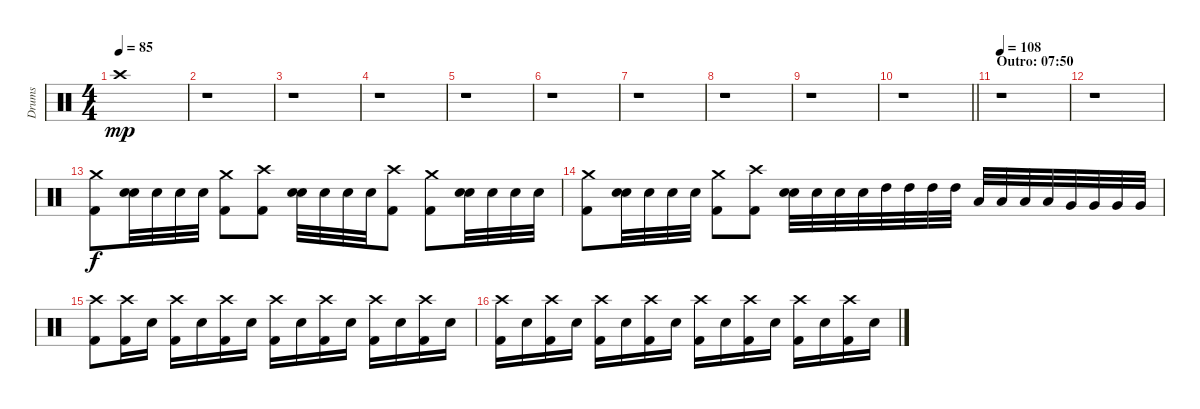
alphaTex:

\track ("Drums" "Drums") {instrument percussion}
\staff {score}
\articulation defaults
\ts (4 4)
\tempo 85
\clef neutral
\ks c "Crash high (hit)".1{dy mp volume 12}
|
r.1 |
r.1 |
r.1 |
r.1 |
r.1 |
r.1 |
r.1 |
r.1 |
\barLineRight lightlight
r.1 |
\section ("" "Outro: 07:50")
\tempo 108
r.1 |
r.1 |
("Crash medium (hit)" "Kick (hit) 2").8{dy f} ("Electric Snare (hit)" "Electric Snare (hit)").32{bu 60} "Electric Snare (hit)".32 "Electric Snare (hit)".32 "Electric Snare (hit)".32 ("Crash medium (hit)" "Kick (hit) 2").8 ("Crash high (hit)" "Kick (hit) 2").8 ("Electric Snare (hit)" "Electric Snare (hit)").32{bu 60} "Electric Snare (hit)".32 "Electric Snare (hit)".32 "Electric Snare (hit)".32 ("Crash high (hit)" "Kick (hit) 2").8 ("Crash medium (hit)" "Kick (hit) 2").8 ("Electric Snare (hit)" "Electric Snare (hit)").32{bu 60} "Electric Snare (hit)".32 "Electric Snare (hit)".32 "Electric Snare (hit)".32 |
("Crash medium (hit)" "Kick (hit) 2").8 ("Electric Snare (hit)" "Electric Snare (hit)").32{bu 60} "Electric Snare (hit)".32 "Electric Snare (hit)".32 "Electric Snare (hit)".32 ("Crash medium (hit)" "Kick (hit) 2").8 ("Crash high (hit)" "Kick (hit) 2").8 ("Electric Snare (hit)" "Electric Snare (hit)").32{bu 60} "Electric Snare (hit)".32 "Electric Snare (hit)".32 "Electric Snare (hit)".32 "High Tom (hit)".32 "High Tom (hit)".32 "High Tom (hit)".32 "High Tom (hit)".32 "Low Tom (hit)".32 "Low Tom (hit)".32 "Low Tom (hit)".32 "Low Tom (hit)".32 "Very Low Tom (hit)".32 "Very Low Tom (hit)".32 "Very Low Tom (hit)".32 "Very Low Tom (hit)".32 |
("Crash high (hit)" "Kick (hit) 2").8 ("Crash high (hit)" "Kick (hit) 2").16 "Electric Snare (hit)".16 ("Crash high (hit)" "Kick (hit) 2").16 "Electric Snare (hit)".16 ("Crash high (hit)" "Kick (hit) 2").16 "Electric Snare (hit)".16 ("Crash high (hit)" "Kick (hit) 2").16 "Electric Snare (hit)".16 ("Crash high (hit)" "Kick (hit) 2").16 "Electric Snare (hit)".16 ("Crash high (hit)" "Kick (hit) 2").16 "Electric Snare (hit)".16 ("Crash high (hit)" "Kick (hit) 2").16 "Electric Snare (hit)".16 |
("Crash high (hit)" "Kick (hit) 2").16 "Electric Snare (hit)".16 ("Crash high (hit)" "Kick (hit) 2").16 "Electric Snare (hit)".16 ("Crash high (hit)" "Kick (hit) 2").16 "Electric Snare (hit)".16 ("Crash high (hit)" "Kick (hit) 2").16 "Electric Snare (hit)".16 ("Crash high (hit)" "Kick (hit) 2").16 "Electric Snare (hit)".16 ("Crash high (hit)" "Kick (hit) 2").16 "Electric Snare (hit)".16 ("Crash high (hit)" "Kick (hit) 2").16 "Electric Snare (hit)".16 ("Crash high (hit)" "Kick (hit) 2").16 "Electric Snare (hit)".16
